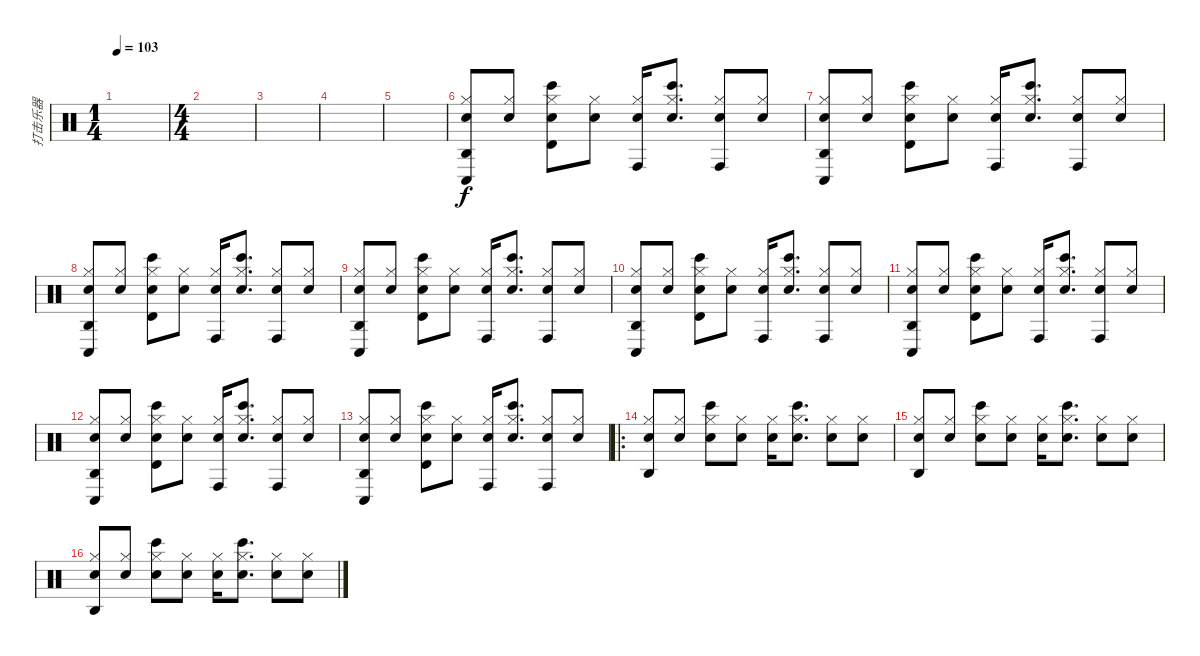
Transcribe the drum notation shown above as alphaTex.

\track ("打击乐器" "打击乐器") {instrument percussion}
\staff {score}
\articulation defaults
\ts (1 4)
\tempo 103
\clef neutral
\ks c
|
\ts (4 4)
|
|
|
|
("Hi-Hat (closed)" "Metronome (bell)" "Agogo high (hit)" "Conga low (hit)").8 ("Hi-Hat (closed)" "Metronome (bell)").8 ("Hi-Hat (closed)" "Metronome (bell)" "Bongo High (hit)" "Timbale high (hit)").8 ("Hi-Hat (closed)" "Metronome (bell)").8 ("Hi-Hat (closed)" "Metronome (bell)" "Conga high (hit)").16 ("Hi-Hat (closed)" "Metronome (bell)" "Bongo High (hit)").8{d} ("Hi-Hat (closed)" "Metronome (bell)" "Conga high (hit)").8 ("Hi-Hat (closed)" "Metronome (bell)").8 |
("Hi-Hat (closed)" "Metronome (bell)" "Agogo high (hit)" "Conga low (hit)").8 ("Hi-Hat (closed)" "Metronome (bell)").8 ("Hi-Hat (closed)" "Metronome (bell)" "Bongo High (hit)" "Timbale high (hit)").8 ("Hi-Hat (closed)" "Metronome (bell)").8 ("Hi-Hat (closed)" "Metronome (bell)" "Conga high (hit)").16 ("Hi-Hat (closed)" "Metronome (bell)" "Bongo High (hit)").8{d} ("Hi-Hat (closed)" "Metronome (bell)" "Conga high (hit)").8 ("Hi-Hat (closed)" "Metronome (bell)").8 |
("Hi-Hat (closed)" "Metronome (bell)" "Agogo high (hit)" "Conga low (hit)").8 ("Hi-Hat (closed)" "Metronome (bell)").8 ("Hi-Hat (closed)" "Metronome (bell)" "Bongo High (hit)" "Timbale high (hit)").8 ("Hi-Hat (closed)" "Metronome (bell)").8 ("Hi-Hat (closed)" "Metronome (bell)" "Conga high (hit)").16 ("Hi-Hat (closed)" "Metronome (bell)" "Bongo High (hit)").8{d} ("Hi-Hat (closed)" "Metronome (bell)" "Conga high (hit)").8 ("Hi-Hat (closed)" "Metronome (bell)").8 |
("Hi-Hat (closed)" "Metronome (bell)" "Agogo high (hit)" "Conga low (hit)").8 ("Hi-Hat (closed)" "Metronome (bell)").8 ("Hi-Hat (closed)" "Metronome (bell)" "Bongo High (hit)" "Timbale high (hit)").8 ("Hi-Hat (closed)" "Metronome (bell)").8 ("Hi-Hat (closed)" "Metronome (bell)" "Conga high (hit)").16 ("Hi-Hat (closed)" "Metronome (bell)" "Bongo High (hit)").8{d} ("Hi-Hat (closed)" "Metronome (bell)" "Conga high (hit)").8 ("Hi-Hat (closed)" "Metronome (bell)").8 |
("Hi-Hat (closed)" "Metronome (bell)" "Agogo high (hit)" "Conga low (hit)").8 ("Hi-Hat (closed)" "Metronome (bell)").8 ("Hi-Hat (closed)" "Metronome (bell)" "Bongo High (hit)" "Timbale high (hit)").8 ("Hi-Hat (closed)" "Metronome (bell)").8 ("Hi-Hat (closed)" "Metronome (bell)" "Conga high (hit)").16 ("Hi-Hat (closed)" "Metronome (bell)" "Bongo High (hit)").8{d} ("Hi-Hat (closed)" "Metronome (bell)" "Conga high (hit)").8 ("Hi-Hat (closed)" "Metronome (bell)").8 |
("Hi-Hat (closed)" "Metronome (bell)" "Agogo high (hit)" "Conga low (hit)").8 ("Hi-Hat (closed)" "Metronome (bell)").8 ("Hi-Hat (closed)" "Metronome (bell)" "Bongo High (hit)" "Timbale high (hit)").8 ("Hi-Hat (closed)" "Metronome (bell)").8 ("Hi-Hat (closed)" "Metronome (bell)" "Conga high (hit)").16 ("Hi-Hat (closed)" "Metronome (bell)" "Bongo High (hit)").8{d} ("Hi-Hat (closed)" "Metronome (bell)" "Conga high (hit)").8 ("Hi-Hat (closed)" "Metronome (bell)").8 |
("Hi-Hat (closed)" "Metronome (bell)" "Agogo high (hit)" "Conga low (hit)").8 ("Hi-Hat (closed)" "Metronome (bell)").8 ("Hi-Hat (closed)" "Metronome (bell)" "Bongo High (hit)" "Timbale high (hit)").8 ("Hi-Hat (closed)" "Metronome (bell)").8 ("Hi-Hat (closed)" "Metronome (bell)" "Conga high (hit)").16 ("Hi-Hat (closed)" "Metronome (bell)" "Bongo High (hit)").8{d} ("Hi-Hat (closed)" "Metronome (bell)" "Conga high (hit)").8 ("Hi-Hat (closed)" "Metronome (bell)").8 |
("Hi-Hat (closed)" "Metronome (bell)" "Agogo high (hit)" "Conga low (hit)").8 ("Hi-Hat (closed)" "Metronome (bell)").8 ("Hi-Hat (closed)" "Metronome (bell)" "Bongo High (hit)" "Timbale high (hit)").8 ("Hi-Hat (closed)" "Metronome (bell)").8 ("Hi-Hat (closed)" "Metronome (bell)" "Conga high (hit)").16 ("Hi-Hat (closed)" "Metronome (bell)" "Bongo High (hit)").8{d} ("Hi-Hat (closed)" "Metronome (bell)" "Conga high (hit)").8 ("Hi-Hat (closed)" "Metronome (bell)").8 |
\ro
("Hi-Hat (closed)" "Metronome (bell)" "Agogo high (hit)").8 ("Hi-Hat (closed)" "Metronome (bell)").8 ("Hi-Hat (closed)" "Metronome (bell)" "Bongo High (hit)").8 ("Hi-Hat (closed)" "Metronome (bell)").8 ("Hi-Hat (closed)" "Metronome (bell)").16 ("Hi-Hat (closed)" "Metronome (bell)" "Bongo High (hit)").8{d} ("Hi-Hat (closed)" "Metronome (bell)").8 ("Hi-Hat (closed)" "Metronome (bell)").8 |
("Hi-Hat (closed)" "Metronome (bell)" "Agogo high (hit)").8 ("Hi-Hat (closed)" "Metronome (bell)").8 ("Hi-Hat (closed)" "Metronome (bell)" "Bongo High (hit)").8 ("Hi-Hat (closed)" "Metronome (bell)").8 ("Hi-Hat (closed)" "Metronome (bell)").16 ("Hi-Hat (closed)" "Metronome (bell)" "Bongo High (hit)").8{d} ("Hi-Hat (closed)" "Metronome (bell)").8 ("Hi-Hat (closed)" "Metronome (bell)").8 |
("Hi-Hat (closed)" "Metronome (bell)" "Agogo high (hit)").8 ("Hi-Hat (closed)" "Metronome (bell)").8 ("Hi-Hat (closed)" "Metronome (bell)" "Bongo High (hit)").8 ("Hi-Hat (closed)" "Metronome (bell)").8 ("Hi-Hat (closed)" "Metronome (bell)").16 ("Hi-Hat (closed)" "Metronome (bell)" "Bongo High (hit)").8{d} ("Hi-Hat (closed)" "Metronome (bell)").8 ("Hi-Hat (closed)" "Metronome (bell)").8
